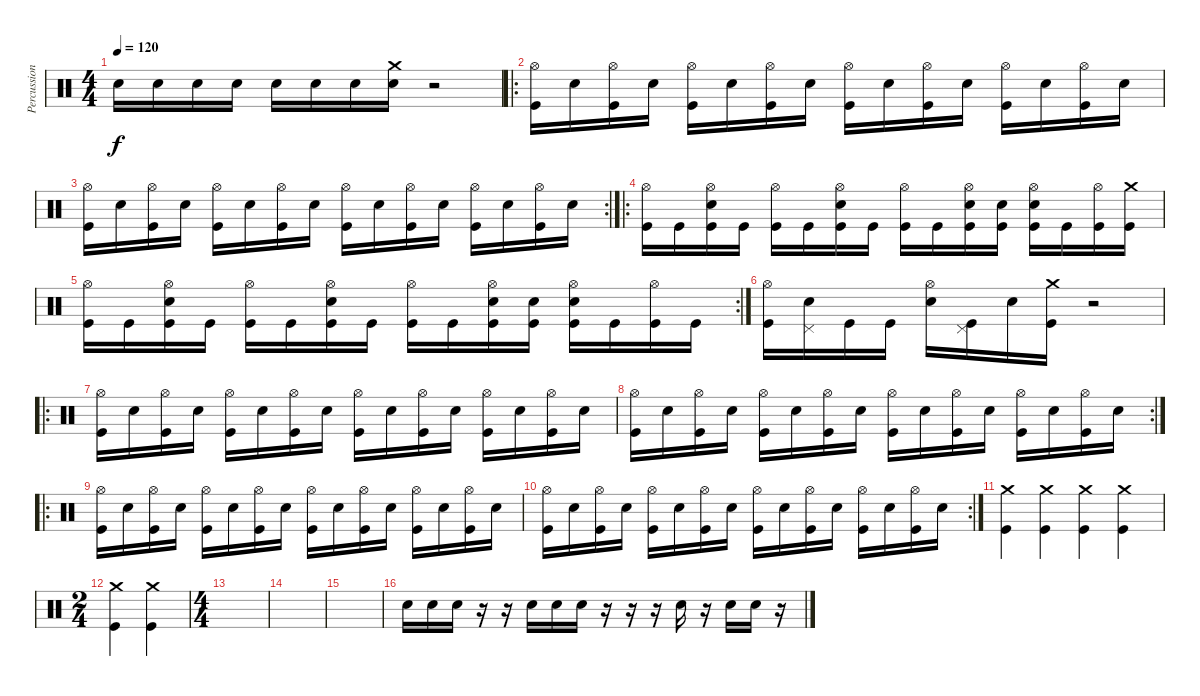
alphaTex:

\track ("Percussion" "Percussion") {instrument percussion}
\staff {score}
\articulation defaults
\ts (4 4)
\tempo 120
\clef neutral
\ks c "Snare (hit) 2".16{dy f} "Snare (hit) 2".16 "Snare (hit) 2".16 "Snare (hit) 2".16 "Snare (hit) 2".16 "Snare (hit) 2".16 "Snare (hit) 2".16
("Crash medium (hit)" "Snare (hit) 2").16 r.2 |
\ro
("Hi-Hat (open)" "Kick (hit)").16 "Snare (hit) 2".16 ("Hi-Hat (open)" "Kick (hit)").16 "Snare (hit) 2".16 ("Hi-Hat (open)" "Kick (hit)").16 "Snare (hit) 2".16 ("Hi-Hat (open)" "Kick (hit)").16 "Snare (hit) 2".16 ("Hi-Hat (open)" "Kick (hit)").16 "Snare (hit) 2".16 ("Hi-Hat (open)" "Kick (hit)").16 "Snare (hit) 2".16 ("Hi-Hat (open)" "Kick (hit)").16 "Snare (hit) 2".16 ("Hi-Hat (open)" "Kick (hit)").16 "Snare (hit) 2".16 |
\rc 2
("Hi-Hat (open)" "Kick (hit)").16 "Snare (hit) 2".16 ("Hi-Hat (open)" "Kick (hit)").16 "Snare (hit) 2".16 ("Hi-Hat (open)" "Kick (hit)").16 "Snare (hit) 2".16 ("Hi-Hat (open)" "Kick (hit)").16 "Snare (hit) 2".16 ("Hi-Hat (open)" "Kick (hit)").16 "Snare (hit) 2".16 ("Hi-Hat (open)" "Kick (hit)").16 "Snare (hit) 2".16 ("Hi-Hat (open)" "Kick (hit)").16 "Snare (hit) 2".16 ("Hi-Hat (open)" "Kick (hit)").16 "Snare (hit) 2".16 |
\ro
("Hi-Hat (open)" "Kick (hit)").16 "Kick (hit)".16 ("Hi-Hat (open)" "Snare (hit) 2" "Kick (hit)").16 "Kick (hit)".16 ("Hi-Hat (open)" "Kick (hit)").16 "Kick (hit)".16 ("Hi-Hat (open)" "Snare (hit) 2" "Kick (hit)").16 "Kick (hit)".16 ("Hi-Hat (open)" "Kick (hit)").16 "Kick (hit)".16 ("Hi-Hat (open)" "Snare (hit) 2" "Kick (hit)").16 ("Snare (hit) 2" "Kick (hit)").16 ("Hi-Hat (open)" "Snare (hit) 2" "Kick (hit)").16 "Kick (hit)".16 ("Hi-Hat (open)" "Kick (hit)").16 ("Crash medium (hit)" "Kick (hit)").16 |
\rc 2
("Hi-Hat (open)" "Kick (hit)").16 "Kick (hit)".16 ("Hi-Hat (open)" "Snare (hit) 2" "Kick (hit)").16 "Kick (hit)".16 ("Hi-Hat (open)" "Kick (hit)").16 "Kick (hit)".16 ("Hi-Hat (open)" "Snare (hit) 2" "Kick (hit)").16 "Kick (hit)".16 ("Hi-Hat (open)" "Kick (hit)").16 "Kick (hit)".16 ("Hi-Hat (open)" "Snare (hit) 2" "Kick (hit)").16 ("Snare (hit) 2" "Kick (hit)").16 ("Hi-Hat (open)" "Snare (hit) 2" "Kick (hit)").16 "Kick (hit)".16 ("Hi-Hat (open)" "Kick (hit)").16 "Kick (hit)".16 |
("Hi-Hat (open)" "Kick (hit)").16 ("Pedal Hi-Hat (hit)" "Snare (hit) 2").16 "Kick (hit)".16 "Kick (hit)".16 ("Hi-Hat (open)" "Snare (hit) 2").16 ("Pedal Hi-Hat (hit)" "Kick (hit)").16 "Snare (hit) 2".16 ("Crash medium (hit)" "Kick (hit)").16 r.2 |
\ro
("Hi-Hat (open)" "Kick (hit)").16 "Snare (hit) 2".16 ("Hi-Hat (open)" "Kick (hit)").16 "Snare (hit) 2".16 ("Hi-Hat (open)" "Kick (hit)").16 "Snare (hit) 2".16 ("Hi-Hat (open)" "Kick (hit)").16 "Snare (hit) 2".16 ("Hi-Hat (open)" "Kick (hit)").16 "Snare (hit) 2".16 ("Hi-Hat (open)" "Kick (hit)").16 "Snare (hit) 2".16 ("Hi-Hat (open)" "Kick (hit)").16 "Snare (hit) 2".16 ("Hi-Hat (open)" "Kick (hit)").16 "Snare (hit) 2".16 |
\rc 2
("Hi-Hat (open)" "Kick (hit)").16 "Snare (hit) 2".16 ("Hi-Hat (open)" "Kick (hit)").16 "Snare (hit) 2".16 ("Hi-Hat (open)" "Kick (hit)").16 "Snare (hit) 2".16 ("Hi-Hat (open)" "Kick (hit)").16 "Snare (hit) 2".16 ("Hi-Hat (open)" "Kick (hit)").16 "Snare (hit) 2".16 ("Hi-Hat (open)" "Kick (hit)").16 "Snare (hit) 2".16 ("Hi-Hat (open)" "Kick (hit)").16 "Snare (hit) 2".16 ("Hi-Hat (open)" "Kick (hit)").16 "Snare (hit) 2".16 |
\ro
("Hi-Hat (open)" "Kick (hit)").16 "Snare (hit) 2".16 ("Hi-Hat (open)" "Kick (hit)").16 "Snare (hit) 2".16 ("Hi-Hat (open)" "Kick (hit)").16 "Snare (hit) 2".16 ("Hi-Hat (open)" "Kick (hit)").16 "Snare (hit) 2".16 ("Hi-Hat (open)" "Kick (hit)").16 "Snare (hit) 2".16 ("Hi-Hat (open)" "Kick (hit)").16 "Snare (hit) 2".16 ("Hi-Hat (open)" "Kick (hit)").16 "Snare (hit) 2".16 ("Hi-Hat (open)" "Kick (hit)").16 "Snare (hit) 2".16 |
\rc 2
("Hi-Hat (open)" "Kick (hit)").16 "Snare (hit) 2".16 ("Hi-Hat (open)" "Kick (hit)").16 "Snare (hit) 2".16 ("Hi-Hat (open)" "Kick (hit)").16 "Snare (hit) 2".16 ("Hi-Hat (open)" "Kick (hit)").16 "Snare (hit) 2".16 ("Hi-Hat (open)" "Kick (hit)").16 "Snare (hit) 2".16 ("Hi-Hat (open)" "Kick (hit)").16 "Snare (hit) 2".16 ("Hi-Hat (open)" "Kick (hit)").16 "Snare (hit) 2".16 ("Hi-Hat (open)" "Kick (hit)").16 "Snare (hit) 2".16 |
("Crash medium (hit)" "Kick (hit)").4 ("Crash medium (hit)" "Kick (hit)").4 ("Crash medium (hit)" "Kick (hit)").4 ("Crash medium (hit)" "Kick (hit)").4 |
\ts (2 4)
("Crash medium (hit)" "Kick (hit)").4 ("Crash medium (hit)" "Kick (hit)").4 |
\ts (4 4)
|
|
|
"Snare (hit) 2".16 "Snare (hit) 2".16 "Snare (hit) 2".16 r.16 r.16 "Snare (hit) 2".16 "Snare (hit) 2".16 "Snare (hit) 2".16 r.16 r.16 r.16 "Snare (hit) 2".16 r.16 "Snare (hit) 2".16 "Snare (hit) 2".16 r.16
